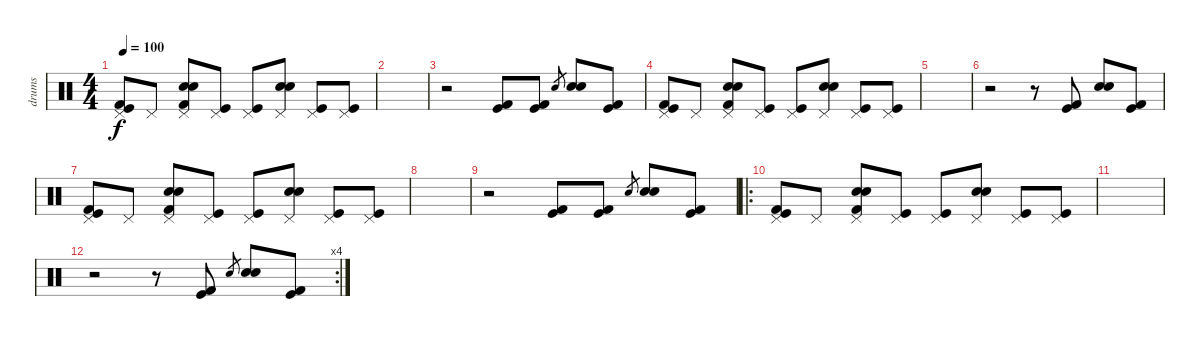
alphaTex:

\track ("drums" "drums") {instrument percussion}
\staff {score}
\articulation defaults
\ts (4 4)
\tempo 100
\clef neutral
\ks c
("Pedal Hi-Hat (hit)" "Kick (hit) 2" "Kick (hit)").8{dy f} "Pedal Hi-Hat (hit)".8 ("Pedal Hi-Hat (hit)" "Electric Snare (hit)" "Snare (hit) 2" "Kick (hit) 2").8 ("Pedal Hi-Hat (hit)" "Kick (hit)").8 ("Pedal Hi-Hat (hit)" "Kick (hit)").8 ("Pedal Hi-Hat (hit)" "Electric Snare (hit)" "Snare (hit) 2").8 ("Pedal Hi-Hat (hit)" "Kick (hit)").8 ("Pedal Hi-Hat (hit)" "Kick (hit)").8 |
|
r.2 ("Kick (hit) 2" "Kick (hit)").8 ("Kick (hit) 2" "Kick (hit)").8 "Electric Snare (hit)"{sl}.8{gr} ("Electric Snare (hit)" "Snare (hit) 2").8 ("Kick (hit)" "Kick (hit) 2").8 |
("Pedal Hi-Hat (hit)" "Kick (hit) 2" "Kick (hit)").8 "Pedal Hi-Hat (hit)".8 ("Pedal Hi-Hat (hit)" "Electric Snare (hit)" "Snare (hit) 2" "Kick (hit) 2").8 ("Pedal Hi-Hat (hit)" "Kick (hit)").8 ("Pedal Hi-Hat (hit)" "Kick (hit)").8 ("Pedal Hi-Hat (hit)" "Electric Snare (hit)" "Snare (hit) 2").8 ("Pedal Hi-Hat (hit)" "Kick (hit)").8 ("Pedal Hi-Hat (hit)" "Kick (hit)").8 |
|
r.2 r.8 ("Kick (hit) 2" "Kick (hit)").8 ("Electric Snare (hit)" "Snare (hit) 2").8 ("Kick (hit)" "Kick (hit) 2").8 |
("Pedal Hi-Hat (hit)" "Kick (hit) 2" "Kick (hit)").8 "Pedal Hi-Hat (hit)".8 ("Pedal Hi-Hat (hit)" "Electric Snare (hit)" "Snare (hit) 2" "Kick (hit) 2").8 ("Pedal Hi-Hat (hit)" "Kick (hit)").8 ("Pedal Hi-Hat (hit)" "Kick (hit)").8 ("Pedal Hi-Hat (hit)" "Electric Snare (hit)" "Snare (hit) 2").8 ("Pedal Hi-Hat (hit)" "Kick (hit)").8 ("Pedal Hi-Hat (hit)" "Kick (hit)").8 |
|
r.2 ("Kick (hit) 2" "Kick (hit)").8 ("Kick (hit) 2" "Kick (hit)").8 "Electric Snare (hit)"{sl}.8{gr} ("Electric Snare (hit)" "Snare (hit) 2").8 ("Kick (hit)" "Kick (hit) 2").8 |
\ro
("Pedal Hi-Hat (hit)" "Kick (hit) 2" "Kick (hit)").8 "Pedal Hi-Hat (hit)".8 ("Pedal Hi-Hat (hit)" "Electric Snare (hit)" "Snare (hit) 2" "Kick (hit) 2").8 ("Pedal Hi-Hat (hit)" "Kick (hit)").8 ("Pedal Hi-Hat (hit)" "Kick (hit)").8 ("Pedal Hi-Hat (hit)" "Electric Snare (hit)" "Snare (hit) 2").8 ("Pedal Hi-Hat (hit)" "Kick (hit)").8 ("Pedal Hi-Hat (hit)" "Kick (hit)").8 |
|
\rc 4
r.2 r.8 ("Kick (hit) 2" "Kick (hit)").8 "Electric Snare (hit)"{sl}.8{gr} ("Electric Snare (hit)" "Snare (hit) 2").8 ("Kick (hit)" "Kick (hit) 2").8
